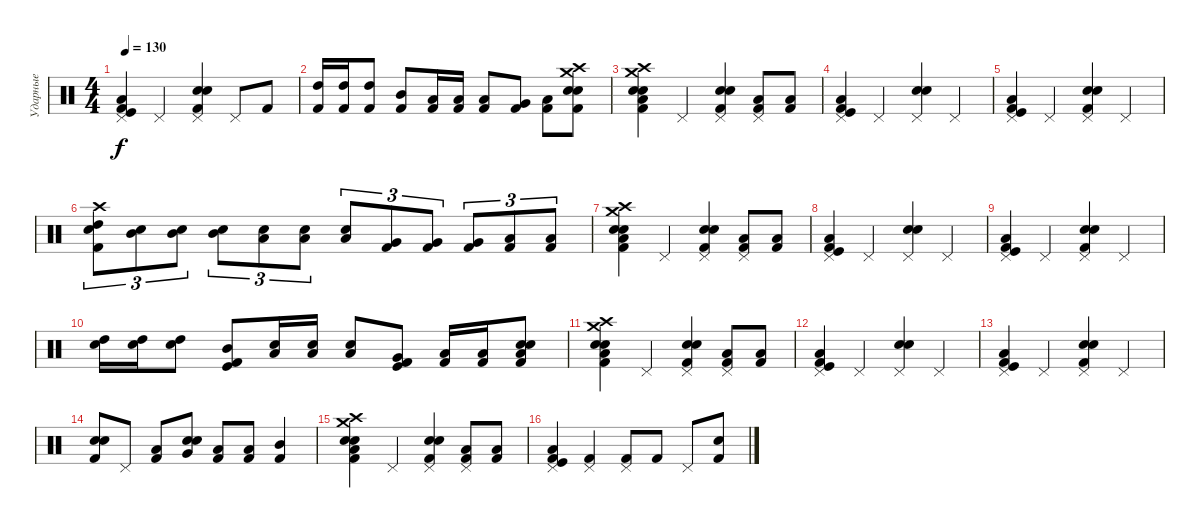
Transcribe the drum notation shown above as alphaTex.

\track ("Ударные" "Ударные") {instrument percussion}
\staff {score}
\articulation defaults
\ts (4 4)
\tempo 130
\clef neutral
\ks c
("Kick (hit) 2" "Kick (hit)" "Pedal Hi-Hat (hit)" "Low Floor Tom (hit)").4{dy f} "Pedal Hi-Hat (hit)".4 ("Kick (hit) 2" "Pedal Hi-Hat (hit)" "Snare (hit) 2" "Electric Snare (hit)").4 "Pedal Hi-Hat (hit)".8 "Kick (hit) 2".8 |
("High Tom (hit)" "Kick (hit) 2").16 ("High Tom (hit)" "Kick (hit) 2").16 ("High Tom (hit)" "Kick (hit) 2").8 ("Mid Tom (hit)" "Kick (hit) 2").8 ("Low Tom (hit)" "Kick (hit) 2").16 ("Low Tom (hit)" "Kick (hit) 2").16 ("Low Tom (hit)" "Kick (hit) 2").8 ("Very Low Tom (hit)" "Kick (hit) 2").8 ("Low Floor Tom (hit)" "Kick (hit) 2").8 ("Crash high (hit)" "Electric Snare (hit)" "Snare (hit) 2" "Kick (hit) 2" "Crash medium (hit)").8 |
("Kick (hit) 2" "Electric Snare (hit)" "Snare (hit) 2" "Crash high (hit)" "Crash medium (hit)" "Low Floor Tom (hit)").4 "Pedal Hi-Hat (hit)".4 ("Pedal Hi-Hat (hit)" "Kick (hit) 2" "Snare (hit) 2" "Electric Snare (hit)").4 ("Kick (hit) 2" "Pedal Hi-Hat (hit)" "Low Floor Tom (hit)").8 ("Low Floor Tom (hit)" "Kick (hit) 2").8 |
("Kick (hit) 2" "Kick (hit)" "Pedal Hi-Hat (hit)" "Low Floor Tom (hit)").4 "Pedal Hi-Hat (hit)".4 ("Pedal Hi-Hat (hit)" "Snare (hit) 2" "Electric Snare (hit)").4 "Pedal Hi-Hat (hit)".4 |
("Kick (hit) 2" "Kick (hit)" "Pedal Hi-Hat (hit)" "Low Floor Tom (hit)").4 "Pedal Hi-Hat (hit)".4 ("Kick (hit) 2" "Pedal Hi-Hat (hit)" "Snare (hit) 2" "Electric Snare (hit)").4 "Pedal Hi-Hat (hit)".4 |
("Crash high (hit)" "High Tom (hit)" "Kick (hit) 2" "Electric Snare (hit)").8{tu (3 2)} ("Mid Tom (hit)" "Snare (hit) 2").8{tu (3 2)} ("Mid Tom (hit)" "Snare (hit) 2").8{tu (3 2)} ("Mid Tom (hit)" "Snare (hit) 2").8{tu (3 2)} ("Low Tom (hit)" "Snare (hit) 2").8{tu (3 2)} ("Low Tom (hit)" "Snare (hit) 2").8{tu (3 2)} ("Low Tom (hit)" "Snare (hit) 2").8{tu (3 2)} ("Very Low Tom (hit)" "Kick (hit) 2").8{tu (3 2)} ("Very Low Tom (hit)" "Kick (hit) 2").8{tu (3 2)} ("Very Low Tom (hit)" "Kick (hit) 2").8{tu (3 2)} ("Low Floor Tom (hit)" "Kick (hit) 2").8{tu (3 2)} ("Low Floor Tom (hit)" "Kick (hit) 2").8{tu (3 2)} |
("Kick (hit) 2" "Electric Snare (hit)" "Snare (hit) 2" "Crash high (hit)" "Crash medium (hit)" "Low Floor Tom (hit)").4 "Pedal Hi-Hat (hit)".4 ("Pedal Hi-Hat (hit)" "Kick (hit) 2" "Snare (hit) 2" "Electric Snare (hit)").4 ("Kick (hit) 2" "Pedal Hi-Hat (hit)" "Low Floor Tom (hit)").8 ("Low Floor Tom (hit)" "Kick (hit) 2").8 |
("Kick (hit) 2" "Kick (hit)" "Pedal Hi-Hat (hit)" "Low Floor Tom (hit)").4 "Pedal Hi-Hat (hit)".4 ("Pedal Hi-Hat (hit)" "Snare (hit) 2" "Electric Snare (hit)").4 "Pedal Hi-Hat (hit)".4 |
("Kick (hit) 2" "Kick (hit)" "Pedal Hi-Hat (hit)" "Low Floor Tom (hit)").4 "Pedal Hi-Hat (hit)".4 ("Kick (hit) 2" "Pedal Hi-Hat (hit)" "Snare (hit) 2" "Electric Snare (hit)").4 "Pedal Hi-Hat (hit)".4 |
("High Tom (hit)" "Electric Snare (hit)").16 ("High Tom (hit)" "Electric Snare (hit)").16 ("High Tom (hit)" "Electric Snare (hit)").8 ("Mid Tom (hit)" "Kick (hit) 2" "Kick (hit)").8 ("Low Tom (hit)" "Snare (hit) 2").16 ("Low Tom (hit)" "Snare (hit) 2").16 ("Low Tom (hit)" "Snare (hit) 2").8 ("Very Low Tom (hit)" "Kick (hit) 2" "Kick (hit)").8 ("Low Floor Tom (hit)" "Kick (hit) 2").16 ("Low Floor Tom (hit)" "Kick (hit) 2").16 ("Low Floor Tom (hit)" "Electric Snare (hit)" "Snare (hit) 2" "Kick (hit) 2").8 |
("Kick (hit) 2" "Electric Snare (hit)" "Snare (hit) 2" "Crash high (hit)" "Crash medium (hit)" "Low Floor Tom (hit)").4 "Pedal Hi-Hat (hit)".4 ("Pedal Hi-Hat (hit)" "Kick (hit) 2" "Snare (hit) 2" "Electric Snare (hit)").4 ("Kick (hit) 2" "Pedal Hi-Hat (hit)" "Low Floor Tom (hit)").8 ("Low Floor Tom (hit)" "Kick (hit) 2").8 |
("Kick (hit) 2" "Kick (hit)" "Pedal Hi-Hat (hit)" "Low Floor Tom (hit)").4 "Pedal Hi-Hat (hit)".4 ("Pedal Hi-Hat (hit)" "Snare (hit) 2" "Electric Snare (hit)").4 "Pedal Hi-Hat (hit)".4 |
("Kick (hit) 2" "Kick (hit)" "Pedal Hi-Hat (hit)" "Low Floor Tom (hit)").4 "Pedal Hi-Hat (hit)".4 ("Kick (hit) 2" "Pedal Hi-Hat (hit)" "Snare (hit) 2" "Electric Snare (hit)").4 "Pedal Hi-Hat (hit)".4 |
("Electric Snare (hit)" "Kick (hit) 2" "Snare (hit) 2").8 "Pedal Hi-Hat (hit)".8 ("Kick (hit) 2" "Low Floor Tom (hit)").8 ("Snare (hit) 2" "Electric Snare (hit)" "Very Low Tom (hit)").8 ("Kick (hit) 2" "Low Floor Tom (hit)").8 ("Kick (hit) 2" "Low Tom (hit)").8 ("Kick (hit) 2" "Mid Tom (hit)").4 |
("Kick (hit) 2" "Electric Snare (hit)" "Snare (hit) 2" "Crash high (hit)" "Crash medium (hit)" "Low Floor Tom (hit)").4 "Pedal Hi-Hat (hit)".4 ("Pedal Hi-Hat (hit)" "Kick (hit) 2" "Snare (hit) 2" "Electric Snare (hit)").4 ("Kick (hit) 2" "Pedal Hi-Hat (hit)" "Low Floor Tom (hit)").8 ("Low Floor Tom (hit)" "Kick (hit) 2").8 |
("Kick (hit) 2" "Kick (hit)" "Pedal Hi-Hat (hit)" "Low Floor Tom (hit)").4 ("Kick (hit) 2" "Pedal Hi-Hat (hit)").4 ("Kick (hit) 2" "Pedal Hi-Hat (hit)").8 "Kick (hit) 2".8 "Pedal Hi-Hat (hit)".8 ("Electric Snare (hit)" "Kick (hit) 2").8
